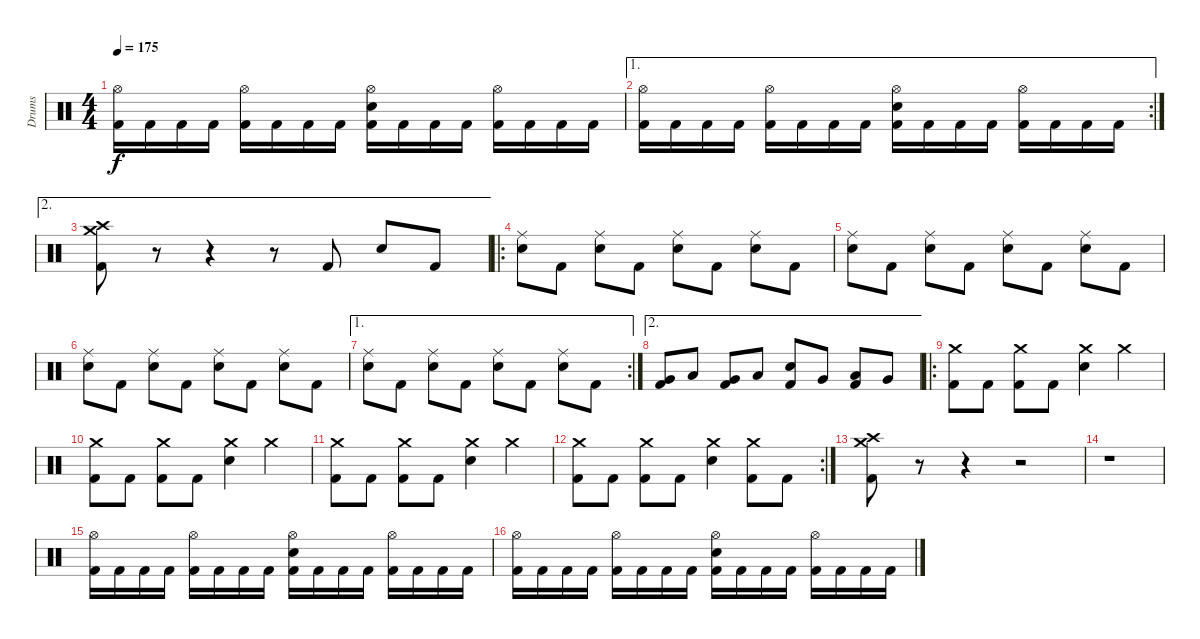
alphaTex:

\track ("Drums" "Drums") {instrument percussion}
\staff {score}
\articulation defaults
\ts (4 4)
\tempo 175
\clef neutral
\ks c
("Hi-Hat (open)" "Kick (hit) 2").16{dy f} "Kick (hit) 2".16 "Kick (hit) 2".16 "Kick (hit) 2".16 ("Hi-Hat (open)" "Kick (hit) 2").16 "Kick (hit) 2".16 "Kick (hit) 2".16 "Kick (hit) 2".16 ("Hi-Hat (open)" "Snare (hit) 2" "Kick (hit) 2").16 "Kick (hit) 2".16 "Kick (hit) 2".16 "Kick (hit) 2".16 ("Hi-Hat (open)" "Kick (hit) 2").16 "Kick (hit) 2".16 "Kick (hit) 2".16 "Kick (hit) 2".16 |
\ae 1
\rc 2
("Hi-Hat (open)" "Kick (hit) 2").16 "Kick (hit) 2".16 "Kick (hit) 2".16 "Kick (hit) 2".16 ("Hi-Hat (open)" "Kick (hit) 2").16 "Kick (hit) 2".16 "Kick (hit) 2".16 "Kick (hit) 2".16 ("Hi-Hat (open)" "Snare (hit) 2" "Kick (hit) 2").16 "Kick (hit) 2".16 "Kick (hit) 2".16 "Kick (hit) 2".16 ("Hi-Hat (open)" "Kick (hit) 2").16 "Kick (hit) 2".16 "Kick (hit) 2".16 "Kick (hit) 2".16 |
\ae 2
("Crash medium (hit)" "Crash high (hit)" "Kick (hit) 2").8 r.8 r.4 r.8 "Kick (hit) 2".8 "Snare (hit) 2".8 "Kick (hit) 2".8 |
\ro
("Ride (middle)" "Snare (hit) 2").8 "Kick (hit) 2".8 ("Ride (middle)" "Snare (hit) 2").8 "Kick (hit) 2".8 ("Ride (middle)" "Snare (hit) 2").8 "Kick (hit) 2".8 ("Ride (middle)" "Snare (hit) 2").8 "Kick (hit) 2".8 |
("Ride (middle)" "Snare (hit) 2").8 "Kick (hit) 2".8 ("Ride (middle)" "Snare (hit) 2").8 "Kick (hit) 2".8 ("Ride (middle)" "Snare (hit) 2").8 "Kick (hit) 2".8 ("Ride (middle)" "Snare (hit) 2").8 "Kick (hit) 2".8 |
("Ride (middle)" "Snare (hit) 2").8 "Kick (hit) 2".8 ("Ride (middle)" "Snare (hit) 2").8 "Kick (hit) 2".8 ("Ride (middle)" "Snare (hit) 2").8 "Kick (hit) 2".8 ("Ride (middle)" "Snare (hit) 2").8 "Kick (hit) 2".8 |
\ae 1
\rc 2
("Ride (middle)" "Snare (hit) 2").8 "Kick (hit) 2".8 ("Ride (middle)" "Snare (hit) 2").8 "Kick (hit) 2".8 ("Ride (middle)" "Snare (hit) 2").8 "Kick (hit) 2".8 ("Ride (middle)" "Snare (hit) 2").8 "Kick (hit) 2".8 |
\ae 2
("Very Low Tom (hit)" "Kick (hit) 2").8 "Low Tom (hit)".8 ("Very Low Tom (hit)" "Kick (hit) 2").8 "Low Tom (hit)".8 ("Snare (hit) 2" "Kick (hit) 2").8 "Very Low Tom (hit)".8 ("Low Tom (hit)" "Kick (hit) 2").8 "Very Low Tom (hit)".8 |
\ro
("Crash medium (hit)" "Kick (hit) 2").8 "Kick (hit) 2".8 ("Crash medium (hit)" "Kick (hit) 2").8 "Kick (hit) 2".8 ("Crash medium (hit)" "Snare (hit) 2").4 "Crash medium (hit)".4 |
("Crash medium (hit)" "Kick (hit) 2").8 "Kick (hit) 2".8 ("Crash medium (hit)" "Kick (hit) 2").8 "Kick (hit) 2".8 ("Crash medium (hit)" "Snare (hit) 2").4 "Crash medium (hit)".4 |
("Crash medium (hit)" "Kick (hit) 2").8 "Kick (hit) 2".8 ("Crash medium (hit)" "Kick (hit) 2").8 "Kick (hit) 2".8 ("Crash medium (hit)" "Snare (hit) 2").4 "Crash medium (hit)".4 |
\rc 2
("Crash medium (hit)" "Kick (hit) 2").8 "Kick (hit) 2".8 ("Crash medium (hit)" "Kick (hit) 2").8 "Kick (hit) 2".8 ("Crash medium (hit)" "Snare (hit) 2").4 ("Crash medium (hit)" "Kick (hit) 2").8 "Kick (hit) 2".8 |
("Crash high (hit)" "Crash medium (hit)" "Kick (hit) 2").8 r.8 r.4 r.2 |
r.1 |
("Hi-Hat (open)" "Kick (hit) 2").16 "Kick (hit) 2".16 "Kick (hit) 2".16 "Kick (hit) 2".16 ("Hi-Hat (open)" "Kick (hit) 2").16 "Kick (hit) 2".16 "Kick (hit) 2".16 "Kick (hit) 2".16 ("Hi-Hat (open)" "Snare (hit) 2" "Kick (hit) 2").16 "Kick (hit) 2".16 "Kick (hit) 2".16 "Kick (hit) 2".16 ("Hi-Hat (open)" "Kick (hit) 2").16 "Kick (hit) 2".16 "Kick (hit) 2".16 "Kick (hit) 2".16 |
("Hi-Hat (open)" "Kick (hit) 2").16 "Kick (hit) 2".16 "Kick (hit) 2".16 "Kick (hit) 2".16 ("Hi-Hat (open)" "Kick (hit) 2").16 "Kick (hit) 2".16 "Kick (hit) 2".16 "Kick (hit) 2".16 ("Hi-Hat (open)" "Snare (hit) 2" "Kick (hit) 2").16 "Kick (hit) 2".16 "Kick (hit) 2".16 "Kick (hit) 2".16 ("Hi-Hat (open)" "Kick (hit) 2").16 "Kick (hit) 2".16 "Kick (hit) 2".16 "Kick (hit) 2".16
